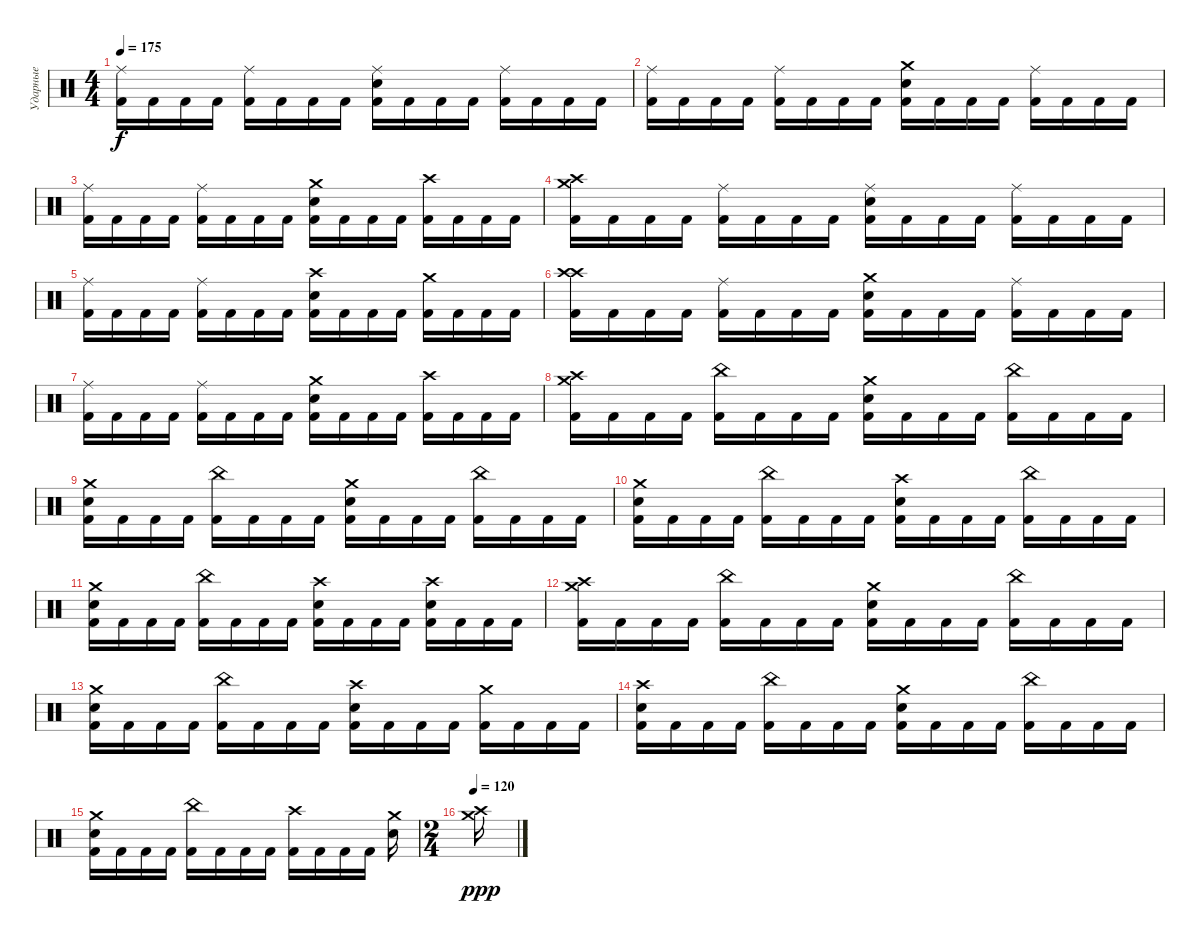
\track ("Ударные" "Ударные") {instrument percussion}
\staff {score}
\articulation defaults
\ts (4 4)
\tempo 175
\clef neutral
\ks c
("Ride (middle)" "Kick (hit) 2").16{dy f} "Kick (hit) 2".16 "Kick (hit) 2".16 "Kick (hit) 2".16 ("Ride (middle)" "Kick (hit) 2").16 "Kick (hit) 2".16 "Kick (hit) 2".16 "Kick (hit) 2".16 ("Ride (middle)" "Electric Snare (hit)" "Kick (hit) 2").16 "Kick (hit) 2".16 "Kick (hit) 2".16 "Kick (hit) 2".16 ("Ride (middle)" "Kick (hit) 2").16 "Kick (hit) 2".16 "Kick (hit) 2".16 "Kick (hit) 2".16 |
("Ride (middle)" "Kick (hit) 2").16 "Kick (hit) 2".16 "Kick (hit) 2".16 "Kick (hit) 2".16 ("Ride (middle)" "Kick (hit) 2").16 "Kick (hit) 2".16 "Kick (hit) 2".16 "Kick (hit) 2".16 ("Crash medium (hit)" "Electric Snare (hit)" "Kick (hit) 2").16 "Kick (hit) 2".16 "Kick (hit) 2".16 "Kick (hit) 2".16 ("Ride (middle)" "Kick (hit) 2").16 "Kick (hit) 2".16 "Kick (hit) 2".16 "Kick (hit) 2".16 |
("Ride (middle)" "Kick (hit) 2").16 "Kick (hit) 2".16 "Kick (hit) 2".16 "Kick (hit) 2".16 ("Ride (middle)" "Kick (hit) 2").16 "Kick (hit) 2".16 "Kick (hit) 2".16 "Kick (hit) 2".16 ("Crash medium (hit)" "Electric Snare (hit)" "Kick (hit) 2").16 "Kick (hit) 2".16 "Kick (hit) 2".16 "Kick (hit) 2".16 ("Crash high (hit)" "Kick (hit) 2").16 "Kick (hit) 2".16 "Kick (hit) 2".16 "Kick (hit) 2".16 |
("Crash medium (hit)" "Crash high (hit)" "Kick (hit) 2").16 "Kick (hit) 2".16 "Kick (hit) 2".16 "Kick (hit) 2".16 ("Ride (middle)" "Kick (hit) 2").16 "Kick (hit) 2".16 "Kick (hit) 2".16 "Kick (hit) 2".16 ("Ride (middle)" "Electric Snare (hit)" "Kick (hit) 2").16 "Kick (hit) 2".16 "Kick (hit) 2".16 "Kick (hit) 2".16 ("Ride (middle)" "Kick (hit) 2").16 "Kick (hit) 2".16 "Kick (hit) 2".16 "Kick (hit) 2".16 |
("Ride (middle)" "Kick (hit) 2").16 "Kick (hit) 2".16 "Kick (hit) 2".16 "Kick (hit) 2".16 ("Ride (middle)" "Kick (hit) 2").16 "Kick (hit) 2".16 "Kick (hit) 2".16 "Kick (hit) 2".16 ("Crash high (hit)" "Electric Snare (hit)" "Kick (hit) 2").16 "Kick (hit) 2".16 "Kick (hit) 2".16 "Kick (hit) 2".16 ("Crash medium (hit)" "Kick (hit) 2").16 "Kick (hit) 2".16 "Kick (hit) 2".16 "Kick (hit) 2".16 |
("Crash high (hit)" "Crash high (hit)" "Kick (hit) 2").16 "Kick (hit) 2".16 "Kick (hit) 2".16 "Kick (hit) 2".16 ("Ride (middle)" "Kick (hit) 2").16 "Kick (hit) 2".16 "Kick (hit) 2".16 "Kick (hit) 2".16 ("Crash medium (hit)" "Electric Snare (hit)" "Kick (hit) 2").16 "Kick (hit) 2".16 "Kick (hit) 2".16 "Kick (hit) 2".16 ("Ride (middle)" "Kick (hit) 2").16 "Kick (hit) 2".16 "Kick (hit) 2".16 "Kick (hit) 2".16 |
("Ride (middle)" "Kick (hit) 2").16 "Kick (hit) 2".16 "Kick (hit) 2".16 "Kick (hit) 2".16 ("Ride (middle)" "Kick (hit) 2").16 "Kick (hit) 2".16 "Kick (hit) 2".16 "Kick (hit) 2".16 ("Crash medium (hit)" "Electric Snare (hit)" "Kick (hit) 2").16 "Kick (hit) 2".16 "Kick (hit) 2".16 "Kick (hit) 2".16 ("Crash high (hit)" "Kick (hit) 2").16 "Kick (hit) 2".16 "Kick (hit) 2".16 "Kick (hit) 2".16 |
("Crash medium (hit)" "Crash high (hit)" "Kick (hit) 2").16 "Kick (hit) 2".16 "Kick (hit) 2".16 "Kick (hit) 2".16 ("China (hit)" "Kick (hit) 2").16 "Kick (hit) 2".16 "Kick (hit) 2".16 "Kick (hit) 2".16 ("Crash medium (hit)" "Electric Snare (hit)" "Kick (hit) 2").16 "Kick (hit) 2".16 "Kick (hit) 2".16 "Kick (hit) 2".16 ("China (hit)" "Kick (hit) 2").16 "Kick (hit) 2".16 "Kick (hit) 2".16 "Kick (hit) 2".16 |
("Crash medium (hit)" "Electric Snare (hit)" "Kick (hit) 2").16 "Kick (hit) 2".16 "Kick (hit) 2".16 "Kick (hit) 2".16 ("China (hit)" "Kick (hit) 2").16 "Kick (hit) 2".16 "Kick (hit) 2".16 "Kick (hit) 2".16 ("Crash medium (hit)" "Electric Snare (hit)" "Kick (hit) 2").16 "Kick (hit) 2".16 "Kick (hit) 2".16 "Kick (hit) 2".16 ("China (hit)" "Kick (hit) 2").16 "Kick (hit) 2".16 "Kick (hit) 2".16 "Kick (hit) 2".16 |
("Crash medium (hit)" "Electric Snare (hit)" "Kick (hit) 2").16 "Kick (hit) 2".16 "Kick (hit) 2".16 "Kick (hit) 2".16 ("China (hit)" "Kick (hit) 2").16 "Kick (hit) 2".16 "Kick (hit) 2".16 "Kick (hit) 2".16 ("Crash high (hit)" "Electric Snare (hit)" "Kick (hit) 2").16 "Kick (hit) 2".16 "Kick (hit) 2".16 "Kick (hit) 2".16 ("China (hit)" "Kick (hit) 2").16 "Kick (hit) 2".16 "Kick (hit) 2".16 "Kick (hit) 2".16 |
("Crash medium (hit)" "Electric Snare (hit)" "Kick (hit) 2").16 "Kick (hit) 2".16 "Kick (hit) 2".16 "Kick (hit) 2".16 ("China (hit)" "Kick (hit) 2").16 "Kick (hit) 2".16 "Kick (hit) 2".16 "Kick (hit) 2".16 ("Crash high (hit)" "Electric Snare (hit)" "Kick (hit) 2").16 "Kick (hit) 2".16 "Kick (hit) 2".16 "Kick (hit) 2".16 ("Crash high (hit)" "Electric Snare (hit)" "Kick (hit) 2").16 "Kick (hit) 2".16 "Kick (hit) 2".16 "Kick (hit) 2".16 |
("Crash medium (hit)" "Crash high (hit)" "Kick (hit) 2").16 "Kick (hit) 2".16 "Kick (hit) 2".16 "Kick (hit) 2".16 ("China (hit)" "Kick (hit) 2").16 "Kick (hit) 2".16 "Kick (hit) 2".16 "Kick (hit) 2".16 ("Crash medium (hit)" "Electric Snare (hit)" "Kick (hit) 2").16 "Kick (hit) 2".16 "Kick (hit) 2".16 "Kick (hit) 2".16 ("China (hit)" "Kick (hit) 2").16 "Kick (hit) 2".16 "Kick (hit) 2".16 "Kick (hit) 2".16 |
("Crash medium (hit)" "Electric Snare (hit)" "Kick (hit) 2").16 "Kick (hit) 2".16 "Kick (hit) 2".16 "Kick (hit) 2".16 ("China (hit)" "Kick (hit) 2").16 "Kick (hit) 2".16 "Kick (hit) 2".16 "Kick (hit) 2".16 ("Crash high (hit)" "Electric Snare (hit)" "Kick (hit) 2").16 "Kick (hit) 2".16 "Kick (hit) 2".16 "Kick (hit) 2".16 ("Crash medium (hit)" "Kick (hit) 2").16 "Kick (hit) 2".16 "Kick (hit) 2".16 "Kick (hit) 2".16 |
("Crash high (hit)" "Electric Snare (hit)" "Kick (hit) 2").16 "Kick (hit) 2".16 "Kick (hit) 2".16 "Kick (hit) 2".16 ("China (hit)" "Kick (hit) 2").16 "Kick (hit) 2".16 "Kick (hit) 2".16 "Kick (hit) 2".16 ("Crash medium (hit)" "Electric Snare (hit)" "Kick (hit) 2").16 "Kick (hit) 2".16 "Kick (hit) 2".16 "Kick (hit) 2".16 ("China (hit)" "Kick (hit) 2").16 "Kick (hit) 2".16 "Kick (hit) 2".16 "Kick (hit) 2".16 |
("Crash medium (hit)" "Electric Snare (hit)" "Kick (hit) 2").16 "Kick (hit) 2".16 "Kick (hit) 2".16 "Kick (hit) 2".16 ("China (hit)" "Kick (hit) 2").16 "Kick (hit) 2".16 "Kick (hit) 2".16 "Kick (hit) 2".16 ("Crash high (hit)" "Kick (hit) 2").16 "Kick (hit) 2".16 "Kick (hit) 2".16 "Kick (hit) 2".16 ("Crash medium (hit)" "Electric Snare (hit)").16 |
\ts (2 4)
\tempo 120
("Crash high (hit)" "Crash medium (hit)").16{dy ppp}
